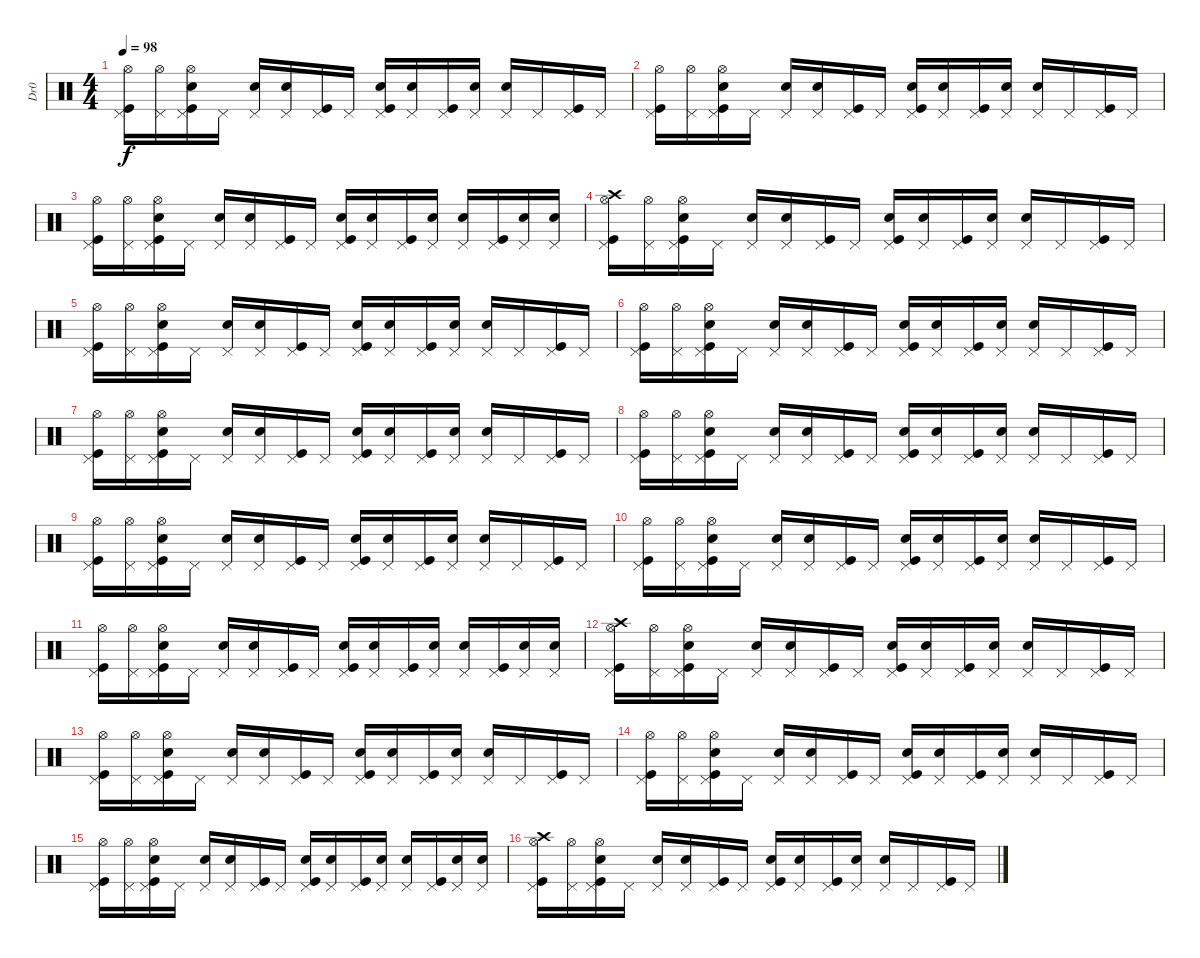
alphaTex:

\track ("Dr0" "Dr0") {instrument percussion}
\staff {score}
\articulation defaults
\ts (4 4)
\tempo 98
\clef neutral
\ks c
("Kick (hit)" "Pedal Hi-Hat (hit)" "Hi-Hat (open)").16{dy f} ("Pedal Hi-Hat (hit)" "Hi-Hat (open)").16 ("Kick (hit)" "Pedal Hi-Hat (hit)" "Hand Clap (hit)" "Hi-Hat (open)").16 "Pedal Hi-Hat (hit)".16 ("Pedal Hi-Hat (hit)" "Snare (hit) 2").16 ("Pedal Hi-Hat (hit)" "Hand Clap (hit)").16 ("Kick (hit)" "Pedal Hi-Hat (hit)").16 "Pedal Hi-Hat (hit)".16 ("Kick (hit)" "Pedal Hi-Hat (hit)" "Hand Clap (hit)").16 ("Pedal Hi-Hat (hit)" "Snare (hit) 2").16 ("Kick (hit)" "Pedal Hi-Hat (hit)").16 ("Pedal Hi-Hat (hit)" "Hand Clap (hit)").16 ("Pedal Hi-Hat (hit)" "Snare (hit) 2").16 "Pedal Hi-Hat (hit)".16 ("Kick (hit)" "Pedal Hi-Hat (hit)").16 "Pedal Hi-Hat (hit)".16 |
("Kick (hit)" "Pedal Hi-Hat (hit)" "Hi-Hat (open)").16 ("Pedal Hi-Hat (hit)" "Hi-Hat (open)").16 ("Kick (hit)" "Pedal Hi-Hat (hit)" "Hand Clap (hit)" "Hi-Hat (open)").16 "Pedal Hi-Hat (hit)".16 ("Pedal Hi-Hat (hit)" "Snare (hit) 2").16 ("Pedal Hi-Hat (hit)" "Hand Clap (hit)").16 ("Kick (hit)" "Pedal Hi-Hat (hit)").16 "Pedal Hi-Hat (hit)".16 ("Kick (hit)" "Pedal Hi-Hat (hit)" "Hand Clap (hit)").16 ("Pedal Hi-Hat (hit)" "Snare (hit) 2").16 ("Kick (hit)" "Pedal Hi-Hat (hit)").16 ("Pedal Hi-Hat (hit)" "Hand Clap (hit)").16 ("Pedal Hi-Hat (hit)" "Snare (hit) 2").16 "Pedal Hi-Hat (hit)".16 ("Kick (hit)" "Pedal Hi-Hat (hit)").16 "Pedal Hi-Hat (hit)".16 |
("Kick (hit)" "Pedal Hi-Hat (hit)" "Hi-Hat (open)").16 ("Pedal Hi-Hat (hit)" "Hi-Hat (open)").16 ("Kick (hit)" "Pedal Hi-Hat (hit)" "Hand Clap (hit)" "Hi-Hat (open)").16 "Pedal Hi-Hat (hit)".16 ("Pedal Hi-Hat (hit)" "Snare (hit) 2").16 ("Pedal Hi-Hat (hit)" "Hand Clap (hit)").16 ("Kick (hit)" "Pedal Hi-Hat (hit)").16 "Pedal Hi-Hat (hit)".16 ("Kick (hit)" "Pedal Hi-Hat (hit)" "Hand Clap (hit)").16 ("Pedal Hi-Hat (hit)" "Snare (hit) 2").16 ("Kick (hit)" "Pedal Hi-Hat (hit)").16 ("Pedal Hi-Hat (hit)" "Hand Clap (hit)").16 ("Pedal Hi-Hat (hit)" "Snare (hit) 2").16 ("Kick (hit)" "Pedal Hi-Hat (hit)").16 ("Pedal Hi-Hat (hit)" "Snare (hit) 2").16 ("Pedal Hi-Hat (hit)" "Snare (hit) 2").16 |
("Kick (hit)" "Pedal Hi-Hat (hit)" "Crash high (hit)" "Hi-Hat (open)").16 ("Pedal Hi-Hat (hit)" "Hi-Hat (open)").16 ("Kick (hit)" "Pedal Hi-Hat (hit)" "Hand Clap (hit)" "Hi-Hat (open)").16 "Pedal Hi-Hat (hit)".16 ("Pedal Hi-Hat (hit)" "Snare (hit) 2").16 ("Pedal Hi-Hat (hit)" "Hand Clap (hit)").16 ("Kick (hit)" "Pedal Hi-Hat (hit)").16 "Pedal Hi-Hat (hit)".16 ("Kick (hit)" "Pedal Hi-Hat (hit)" "Hand Clap (hit)").16 ("Pedal Hi-Hat (hit)" "Snare (hit) 2").16 ("Kick (hit)" "Pedal Hi-Hat (hit)").16 ("Pedal Hi-Hat (hit)" "Hand Clap (hit)").16 ("Pedal Hi-Hat (hit)" "Snare (hit) 2").16 "Pedal Hi-Hat (hit)".16 ("Kick (hit)" "Pedal Hi-Hat (hit)").16 "Pedal Hi-Hat (hit)".16 |
("Kick (hit)" "Pedal Hi-Hat (hit)" "Hi-Hat (open)").16 ("Pedal Hi-Hat (hit)" "Hi-Hat (open)").16 ("Kick (hit)" "Pedal Hi-Hat (hit)" "Hand Clap (hit)" "Hi-Hat (open)").16 "Pedal Hi-Hat (hit)".16 ("Pedal Hi-Hat (hit)" "Snare (hit) 2").16 ("Pedal Hi-Hat (hit)" "Hand Clap (hit)").16 ("Kick (hit)" "Pedal Hi-Hat (hit)").16 "Pedal Hi-Hat (hit)".16 ("Kick (hit)" "Pedal Hi-Hat (hit)" "Hand Clap (hit)").16 ("Pedal Hi-Hat (hit)" "Snare (hit) 2").16 ("Kick (hit)" "Pedal Hi-Hat (hit)").16 ("Pedal Hi-Hat (hit)" "Hand Clap (hit)").16 ("Pedal Hi-Hat (hit)" "Snare (hit) 2").16 "Pedal Hi-Hat (hit)".16 ("Kick (hit)" "Pedal Hi-Hat (hit)").16 "Pedal Hi-Hat (hit)".16 |
("Kick (hit)" "Pedal Hi-Hat (hit)" "Hi-Hat (open)").16 ("Pedal Hi-Hat (hit)" "Hi-Hat (open)").16 ("Kick (hit)" "Pedal Hi-Hat (hit)" "Hand Clap (hit)" "Hi-Hat (open)").16 "Pedal Hi-Hat (hit)".16 ("Pedal Hi-Hat (hit)" "Snare (hit) 2").16 ("Pedal Hi-Hat (hit)" "Hand Clap (hit)").16 ("Kick (hit)" "Pedal Hi-Hat (hit)").16 "Pedal Hi-Hat (hit)".16 ("Kick (hit)" "Pedal Hi-Hat (hit)" "Hand Clap (hit)").16 ("Pedal Hi-Hat (hit)" "Snare (hit) 2").16 ("Kick (hit)" "Pedal Hi-Hat (hit)").16 ("Pedal Hi-Hat (hit)" "Hand Clap (hit)").16 ("Pedal Hi-Hat (hit)" "Snare (hit) 2").16 "Pedal Hi-Hat (hit)".16 ("Kick (hit)" "Pedal Hi-Hat (hit)").16 "Pedal Hi-Hat (hit)".16 |
("Kick (hit)" "Pedal Hi-Hat (hit)" "Hi-Hat (open)").16 ("Pedal Hi-Hat (hit)" "Hi-Hat (open)").16 ("Kick (hit)" "Pedal Hi-Hat (hit)" "Hand Clap (hit)" "Hi-Hat (open)").16 "Pedal Hi-Hat (hit)".16 ("Pedal Hi-Hat (hit)" "Snare (hit) 2").16 ("Pedal Hi-Hat (hit)" "Hand Clap (hit)").16 ("Kick (hit)" "Pedal Hi-Hat (hit)").16 "Pedal Hi-Hat (hit)".16 ("Kick (hit)" "Pedal Hi-Hat (hit)" "Hand Clap (hit)").16 ("Pedal Hi-Hat (hit)" "Snare (hit) 2").16 ("Kick (hit)" "Pedal Hi-Hat (hit)").16 ("Pedal Hi-Hat (hit)" "Hand Clap (hit)").16 ("Pedal Hi-Hat (hit)" "Snare (hit) 2").16 "Pedal Hi-Hat (hit)".16 ("Kick (hit)" "Pedal Hi-Hat (hit)").16 "Pedal Hi-Hat (hit)".16 |
("Kick (hit)" "Pedal Hi-Hat (hit)" "Hi-Hat (open)").16 ("Pedal Hi-Hat (hit)" "Hi-Hat (open)").16 ("Kick (hit)" "Pedal Hi-Hat (hit)" "Hand Clap (hit)" "Hi-Hat (open)").16 "Pedal Hi-Hat (hit)".16 ("Pedal Hi-Hat (hit)" "Snare (hit) 2").16 ("Pedal Hi-Hat (hit)" "Hand Clap (hit)").16 ("Kick (hit)" "Pedal Hi-Hat (hit)").16 "Pedal Hi-Hat (hit)".16 ("Kick (hit)" "Pedal Hi-Hat (hit)" "Hand Clap (hit)").16 ("Pedal Hi-Hat (hit)" "Snare (hit) 2").16 ("Kick (hit)" "Pedal Hi-Hat (hit)").16 ("Pedal Hi-Hat (hit)" "Hand Clap (hit)").16 ("Pedal Hi-Hat (hit)" "Snare (hit) 2").16 "Pedal Hi-Hat (hit)".16 ("Kick (hit)" "Pedal Hi-Hat (hit)").16 "Pedal Hi-Hat (hit)".16 |
("Kick (hit)" "Pedal Hi-Hat (hit)" "Hi-Hat (open)").16 ("Pedal Hi-Hat (hit)" "Hi-Hat (open)").16 ("Kick (hit)" "Pedal Hi-Hat (hit)" "Hand Clap (hit)" "Hi-Hat (open)").16 "Pedal Hi-Hat (hit)".16 ("Pedal Hi-Hat (hit)" "Snare (hit) 2").16 ("Pedal Hi-Hat (hit)" "Hand Clap (hit)").16 ("Kick (hit)" "Pedal Hi-Hat (hit)").16 "Pedal Hi-Hat (hit)".16 ("Kick (hit)" "Pedal Hi-Hat (hit)" "Hand Clap (hit)").16 ("Pedal Hi-Hat (hit)" "Snare (hit) 2").16 ("Kick (hit)" "Pedal Hi-Hat (hit)").16 ("Pedal Hi-Hat (hit)" "Hand Clap (hit)").16 ("Pedal Hi-Hat (hit)" "Snare (hit) 2").16 "Pedal Hi-Hat (hit)".16 ("Kick (hit)" "Pedal Hi-Hat (hit)").16 "Pedal Hi-Hat (hit)".16 |
("Kick (hit)" "Pedal Hi-Hat (hit)" "Hi-Hat (open)").16 ("Pedal Hi-Hat (hit)" "Hi-Hat (open)").16 ("Kick (hit)" "Pedal Hi-Hat (hit)" "Hand Clap (hit)" "Hi-Hat (open)").16 "Pedal Hi-Hat (hit)".16 ("Pedal Hi-Hat (hit)" "Snare (hit) 2").16 ("Pedal Hi-Hat (hit)" "Hand Clap (hit)").16 ("Kick (hit)" "Pedal Hi-Hat (hit)").16 "Pedal Hi-Hat (hit)".16 ("Kick (hit)" "Pedal Hi-Hat (hit)" "Hand Clap (hit)").16 ("Pedal Hi-Hat (hit)" "Snare (hit) 2").16 ("Kick (hit)" "Pedal Hi-Hat (hit)").16 ("Pedal Hi-Hat (hit)" "Hand Clap (hit)").16 ("Pedal Hi-Hat (hit)" "Snare (hit) 2").16 "Pedal Hi-Hat (hit)".16 ("Kick (hit)" "Pedal Hi-Hat (hit)").16 "Pedal Hi-Hat (hit)".16 |
("Kick (hit)" "Pedal Hi-Hat (hit)" "Hi-Hat (open)").16 ("Pedal Hi-Hat (hit)" "Hi-Hat (open)").16 ("Kick (hit)" "Pedal Hi-Hat (hit)" "Hand Clap (hit)" "Hi-Hat (open)").16 "Pedal Hi-Hat (hit)".16 ("Pedal Hi-Hat (hit)" "Snare (hit) 2").16 ("Pedal Hi-Hat (hit)" "Hand Clap (hit)").16 ("Kick (hit)" "Pedal Hi-Hat (hit)").16 "Pedal Hi-Hat (hit)".16 ("Kick (hit)" "Pedal Hi-Hat (hit)" "Hand Clap (hit)").16 ("Pedal Hi-Hat (hit)" "Snare (hit) 2").16 ("Kick (hit)" "Pedal Hi-Hat (hit)").16 ("Pedal Hi-Hat (hit)" "Hand Clap (hit)").16 ("Pedal Hi-Hat (hit)" "Snare (hit) 2").16 ("Kick (hit)" "Pedal Hi-Hat (hit)").16 ("Pedal Hi-Hat (hit)" "Snare (hit) 2").16 ("Pedal Hi-Hat (hit)" "Snare (hit) 2").16 |
("Kick (hit)" "Pedal Hi-Hat (hit)" "Crash high (hit)" "Hi-Hat (open)").16 ("Pedal Hi-Hat (hit)" "Hi-Hat (open)").16 ("Kick (hit)" "Pedal Hi-Hat (hit)" "Hand Clap (hit)" "Hi-Hat (open)").16 "Pedal Hi-Hat (hit)".16 ("Pedal Hi-Hat (hit)" "Snare (hit) 2").16 ("Pedal Hi-Hat (hit)" "Hand Clap (hit)").16 ("Kick (hit)" "Pedal Hi-Hat (hit)").16 "Pedal Hi-Hat (hit)".16 ("Kick (hit)" "Pedal Hi-Hat (hit)" "Hand Clap (hit)").16 ("Pedal Hi-Hat (hit)" "Snare (hit) 2").16 ("Kick (hit)" "Pedal Hi-Hat (hit)").16 ("Pedal Hi-Hat (hit)" "Hand Clap (hit)").16 ("Pedal Hi-Hat (hit)" "Snare (hit) 2").16 "Pedal Hi-Hat (hit)".16 ("Kick (hit)" "Pedal Hi-Hat (hit)").16 "Pedal Hi-Hat (hit)".16 |
("Kick (hit)" "Pedal Hi-Hat (hit)" "Hi-Hat (open)").16 ("Pedal Hi-Hat (hit)" "Hi-Hat (open)").16 ("Kick (hit)" "Pedal Hi-Hat (hit)" "Hand Clap (hit)" "Hi-Hat (open)").16 "Pedal Hi-Hat (hit)".16 ("Pedal Hi-Hat (hit)" "Snare (hit) 2").16 ("Pedal Hi-Hat (hit)" "Hand Clap (hit)").16 ("Kick (hit)" "Pedal Hi-Hat (hit)").16 "Pedal Hi-Hat (hit)".16 ("Kick (hit)" "Pedal Hi-Hat (hit)" "Hand Clap (hit)").16 ("Pedal Hi-Hat (hit)" "Snare (hit) 2").16 ("Kick (hit)" "Pedal Hi-Hat (hit)").16 ("Pedal Hi-Hat (hit)" "Hand Clap (hit)").16 ("Pedal Hi-Hat (hit)" "Snare (hit) 2").16 "Pedal Hi-Hat (hit)".16 ("Kick (hit)" "Pedal Hi-Hat (hit)").16 "Pedal Hi-Hat (hit)".16 |
("Kick (hit)" "Pedal Hi-Hat (hit)" "Hi-Hat (open)").16 ("Pedal Hi-Hat (hit)" "Hi-Hat (open)").16 ("Kick (hit)" "Pedal Hi-Hat (hit)" "Hand Clap (hit)" "Hi-Hat (open)").16 "Pedal Hi-Hat (hit)".16 ("Pedal Hi-Hat (hit)" "Snare (hit) 2").16 ("Pedal Hi-Hat (hit)" "Hand Clap (hit)").16 ("Kick (hit)" "Pedal Hi-Hat (hit)").16 "Pedal Hi-Hat (hit)".16 ("Kick (hit)" "Pedal Hi-Hat (hit)" "Hand Clap (hit)").16 ("Pedal Hi-Hat (hit)" "Snare (hit) 2").16 ("Kick (hit)" "Pedal Hi-Hat (hit)").16 ("Pedal Hi-Hat (hit)" "Hand Clap (hit)").16 ("Pedal Hi-Hat (hit)" "Snare (hit) 2").16 "Pedal Hi-Hat (hit)".16 ("Kick (hit)" "Pedal Hi-Hat (hit)").16 "Pedal Hi-Hat (hit)".16 |
("Kick (hit)" "Pedal Hi-Hat (hit)" "Hi-Hat (open)").16 ("Pedal Hi-Hat (hit)" "Hi-Hat (open)").16 ("Kick (hit)" "Pedal Hi-Hat (hit)" "Hand Clap (hit)" "Hi-Hat (open)").16 "Pedal Hi-Hat (hit)".16 ("Pedal Hi-Hat (hit)" "Snare (hit) 2").16 ("Pedal Hi-Hat (hit)" "Hand Clap (hit)").16 ("Kick (hit)" "Pedal Hi-Hat (hit)").16 "Pedal Hi-Hat (hit)".16 ("Kick (hit)" "Pedal Hi-Hat (hit)" "Hand Clap (hit)").16 ("Pedal Hi-Hat (hit)" "Snare (hit) 2").16 ("Kick (hit)" "Pedal Hi-Hat (hit)").16 ("Pedal Hi-Hat (hit)" "Hand Clap (hit)").16 ("Pedal Hi-Hat (hit)" "Snare (hit) 2").16 ("Kick (hit)" "Pedal Hi-Hat (hit)").16 ("Pedal Hi-Hat (hit)" "Snare (hit) 2").16 ("Pedal Hi-Hat (hit)" "Snare (hit) 2").16 |
("Kick (hit)" "Pedal Hi-Hat (hit)" "Crash high (hit)" "Hi-Hat (open)").16 ("Pedal Hi-Hat (hit)" "Hi-Hat (open)").16 ("Kick (hit)" "Pedal Hi-Hat (hit)" "Hand Clap (hit)" "Hi-Hat (open)").16 "Pedal Hi-Hat (hit)".16 ("Pedal Hi-Hat (hit)" "Snare (hit) 2").16 ("Pedal Hi-Hat (hit)" "Hand Clap (hit)").16 ("Kick (hit)" "Pedal Hi-Hat (hit)").16 "Pedal Hi-Hat (hit)".16 ("Kick (hit)" "Pedal Hi-Hat (hit)" "Hand Clap (hit)").16 ("Pedal Hi-Hat (hit)" "Snare (hit) 2").16 ("Kick (hit)" "Pedal Hi-Hat (hit)").16 ("Pedal Hi-Hat (hit)" "Hand Clap (hit)").16 ("Pedal Hi-Hat (hit)" "Snare (hit) 2").16 "Pedal Hi-Hat (hit)".16 ("Kick (hit)" "Pedal Hi-Hat (hit)").16 "Pedal Hi-Hat (hit)".16
